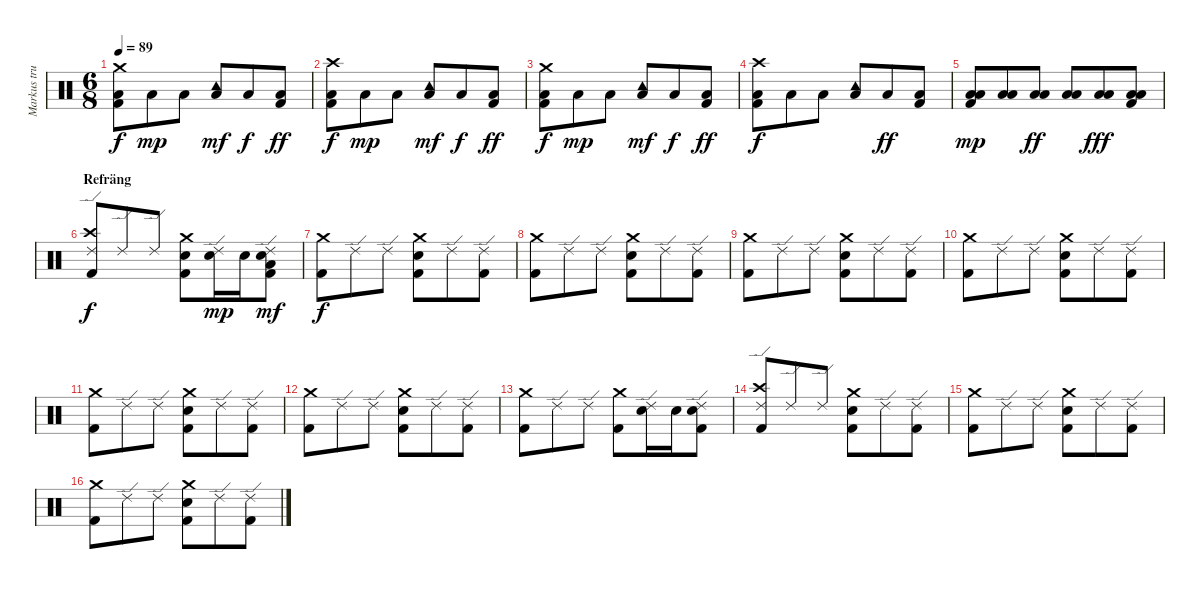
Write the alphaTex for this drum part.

\track ("Markus trummor" "Markus tru") {instrument percussion}
\staff {score}
\articulation defaults
\ts (6 8)
\tempo 89
\clef neutral
\ks c
("Crash medium (hit)" "Low Floor Tom (hit)" "Kick (hit) 2").8{dy f} "Low Floor Tom (hit)".8{dy mp} "Low Floor Tom (hit)".8 ("Tambourine (hit)" "Low Floor Tom (hit)").8{dy mf} "Low Floor Tom (hit)".8{dy f} ("Low Floor Tom (hit)" "Kick (hit) 2").8{dy ff} |
("Crash high (hit)" "Low Floor Tom (hit)" "Kick (hit) 2").8{dy f} "Low Floor Tom (hit)".8{dy mp} "Low Floor Tom (hit)".8 ("Tambourine (hit)" "Low Floor Tom (hit)").8{dy mf} "Low Floor Tom (hit)".8{dy f} ("Low Floor Tom (hit)" "Kick (hit) 2").8{dy ff} |
("Crash medium (hit)" "Low Floor Tom (hit)" "Kick (hit) 2").8{dy f} "Low Floor Tom (hit)".8{dy mp} "Low Floor Tom (hit)".8 ("Tambourine (hit)" "Low Floor Tom (hit)").8{dy mf} "Low Floor Tom (hit)".8{dy f} ("Low Floor Tom (hit)" "Kick (hit) 2").8{dy ff} |
("Crash high (hit)" "Low Floor Tom (hit)" "Kick (hit) 2").8{dy f} "Low Floor Tom (hit)".8 "Low Floor Tom (hit)".8 ("Tambourine (hit)" "Low Floor Tom (hit)").8 "Low Floor Tom (hit)".8{dy ff} ("Low Floor Tom (hit)" "Kick (hit) 2").8 |
("Low Tom (hit)" "Low Floor Tom (hit)" "Kick (hit) 2").8{dy mp} ("Low Tom (hit)" "Low Floor Tom (hit)").8 ("Low Tom (hit)" "Low Floor Tom (hit)").8{dy ff} ("Low Tom (hit)" "Low Floor Tom (hit)").8 ("Low Tom (hit)" "Low Floor Tom (hit)").8{dy fff} ("Low Tom (hit)" "Low Floor Tom (hit)" "Kick (hit) 2").8 |
\section ("" "Refräng")
("Crash high (hit)" "Ride (edge) 2" "Kick (hit) 2").8{dy f} "Ride (edge) 2".8 "Ride (edge) 2".8 ("Crash medium (hit)" "Snare (hit) 2" "Kick (hit) 2").8 ("Ride (edge) 2" "Snare (hit) 2").16{dy mp} "Snare (hit) 2".16 ("Ride (edge) 2" "Snare (hit) 2" "Low Floor Tom (hit)" "Kick (hit) 2").8{dy mf} |
("Crash medium (hit)" "Kick (hit) 2").8{dy f} "Ride (edge) 2".8 "Ride (edge) 2".8 ("Crash medium (hit)" "Snare (hit) 2" "Kick (hit) 2").8 "Ride (edge) 2".8 ("Ride (edge) 2" "Kick (hit) 2").8 |
("Crash medium (hit)" "Kick (hit) 2").8 "Ride (edge) 2".8 "Ride (edge) 2".8 ("Crash medium (hit)" "Snare (hit) 2" "Kick (hit) 2").8 "Ride (edge) 2".8 ("Ride (edge) 2" "Kick (hit) 2").8 |
("Crash medium (hit)" "Kick (hit) 2").8 "Ride (edge) 2".8 "Ride (edge) 2".8 ("Crash medium (hit)" "Snare (hit) 2" "Kick (hit) 2").8 "Ride (edge) 2".8 ("Ride (edge) 2" "Kick (hit) 2").8 |
("Crash medium (hit)" "Kick (hit) 2").8 "Ride (edge) 2".8 "Ride (edge) 2".8 ("Crash medium (hit)" "Snare (hit) 2" "Kick (hit) 2").8 "Ride (edge) 2".8 ("Ride (edge) 2" "Kick (hit) 2").8 |
("Crash medium (hit)" "Kick (hit) 2").8 "Ride (edge) 2".8 "Ride (edge) 2".8 ("Crash medium (hit)" "Snare (hit) 2" "Kick (hit) 2").8 "Ride (edge) 2".8 ("Ride (edge) 2" "Kick (hit) 2").8 |
("Crash medium (hit)" "Kick (hit) 2").8 "Ride (edge) 2".8 "Ride (edge) 2".8 ("Crash medium (hit)" "Snare (hit) 2" "Kick (hit) 2").8 "Ride (edge) 2".8 ("Ride (edge) 2" "Kick (hit) 2").8 |
("Crash medium (hit)" "Kick (hit) 2").8 "Ride (edge) 2".8 "Ride (edge) 2".8 ("Crash medium (hit)" "Kick (hit) 2").8 ("Ride (edge) 2" "Snare (hit) 2").16 "Snare (hit) 2".16 ("Ride (edge) 2" "Snare (hit) 2" "Kick (hit) 2").8 |
("Crash high (hit)" "Ride (edge) 2" "Kick (hit) 2").8 "Ride (edge) 2".8 "Ride (edge) 2".8 ("Crash medium (hit)" "Snare (hit) 2" "Kick (hit) 2").8 "Ride (edge) 2".8 ("Ride (edge) 2" "Kick (hit) 2").8 |
("Crash medium (hit)" "Kick (hit) 2").8 "Ride (edge) 2".8 "Ride (edge) 2".8 ("Crash medium (hit)" "Snare (hit) 2" "Kick (hit) 2").8 "Ride (edge) 2".8 ("Ride (edge) 2" "Kick (hit) 2").8 |
("Crash medium (hit)" "Kick (hit) 2").8 "Ride (edge) 2".8 "Ride (edge) 2".8 ("Crash medium (hit)" "Snare (hit) 2" "Kick (hit) 2").8 "Ride (edge) 2".8 ("Ride (edge) 2" "Kick (hit) 2").8
